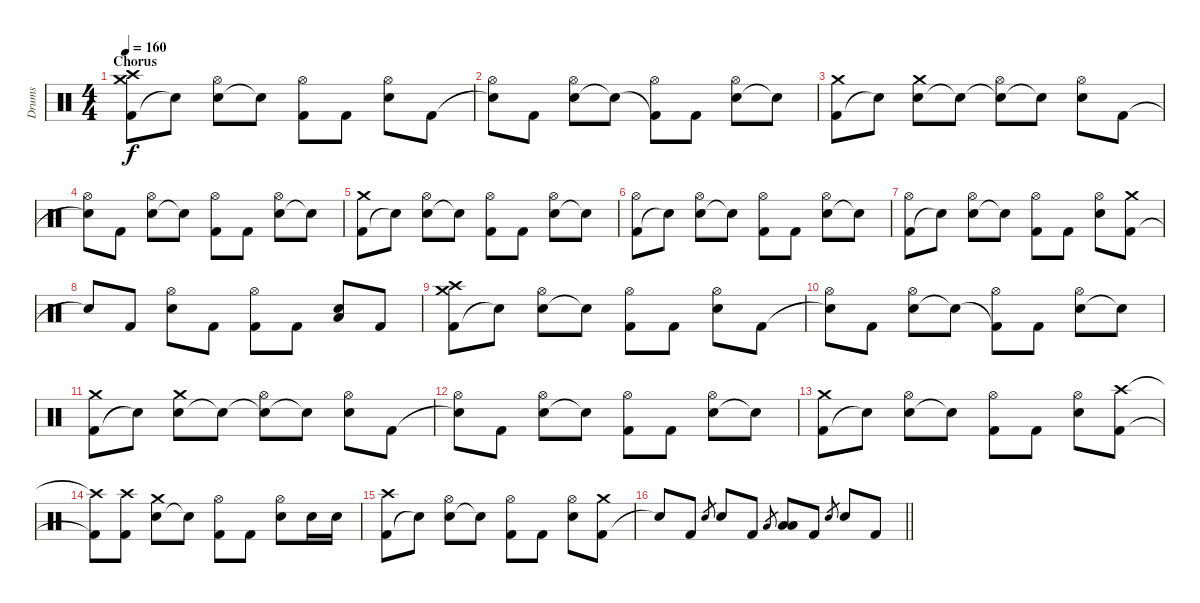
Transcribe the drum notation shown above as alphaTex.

\track ("Drums" "Drums") {instrument percussion}
\staff {score}
\articulation defaults
\ts (4 4)
\section ("" "Chorus")
\tempo 160
\clef neutral
\ks c
("Kick (hit) 2" "Crash medium (hit)" "Crash high (hit)").8{dy f} "Snare (hit)"{t}.8 ("Electric Snare (hit)" "Hi-Hat (open)").8 "Snare (hit)"{t}.8 ("Kick (hit) 2" "Hi-Hat (open)").8 "Kick (hit) 2".8 ("Electric Snare (hit)" "Hi-Hat (open)").8 "Kick (hit) 2".8 |
("Snare (hit)"{t} "Hi-Hat (open)").8 "Kick (hit) 2".8 ("Electric Snare (hit)" "Hi-Hat (open)").8 "Snare (hit)"{t}.8 ("Kick (hit) 2"{t} "Hi-Hat (open)").8 "Kick (hit) 2".8 ("Electric Snare (hit)" "Hi-Hat (open)").8 "Snare (hit)"{t}.8 |
("Kick (hit) 2" "Crash medium (hit)").8 "Snare (hit)"{t}.8 ("Electric Snare (hit)" "Crash medium (hit)").8 "Snare (hit)"{t}.8 ("Snare (hit)"{t} "Hi-Hat (open)").8 "Snare (hit)"{t}.8 ("Electric Snare (hit)" "Hi-Hat (open)").8 "Kick (hit) 2".8 |
("Snare (hit)"{t} "Hi-Hat (open)").8 "Kick (hit) 2".8 ("Electric Snare (hit)" "Hi-Hat (open)").8 "Snare (hit)"{t}.8 ("Kick (hit) 2" "Hi-Hat (open)").8 "Kick (hit) 2".8 ("Electric Snare (hit)" "Hi-Hat (open)").8 "Snare (hit)"{t}.8 |
("Kick (hit) 2" "Crash medium (hit)").8 "Snare (hit)"{t}.8 ("Electric Snare (hit)" "Hi-Hat (open)").8 "Snare (hit)"{t}.8 ("Kick (hit) 2" "Hi-Hat (open)").8 "Kick (hit) 2".8 ("Electric Snare (hit)" "Hi-Hat (open)").8 "Snare (hit)"{t}.8 |
("Kick (hit) 2" "Hi-Hat (open)").8 "Snare (hit)"{t}.8 ("Electric Snare (hit)" "Hi-Hat (open)").8 "Snare (hit)"{t}.8 ("Kick (hit) 2" "Hi-Hat (open)").8 "Kick (hit) 2".8 ("Electric Snare (hit)" "Hi-Hat (open)").8 "Snare (hit)"{t}.8 |
("Kick (hit) 2" "Hi-Hat (open)").8 "Snare (hit)"{t}.8 ("Electric Snare (hit)" "Hi-Hat (open)").8 "Snare (hit)"{t}.8 ("Kick (hit) 2" "Hi-Hat (open)").8 "Kick (hit) 2".8 ("Electric Snare (hit)" "Hi-Hat (open)").8 ("Kick (hit) 2" "Crash medium (hit)").8 |
"Snare (hit)"{t}.8 "Kick (hit) 2".8 ("Electric Snare (hit)" "Hi-Hat (open)").8 "Kick (hit) 2".8 ("Kick (hit) 2" "Hi-Hat (open)").8 "Kick (hit) 2".8 ("Electric Snare (hit)" "Low Tom (hit)").8 "Kick (hit) 2".8 |
("Kick (hit) 2" "Crash medium (hit)" "Crash high (hit)").8 "Snare (hit)"{t}.8 ("Electric Snare (hit)" "Hi-Hat (open)").8 "Snare (hit)"{t}.8 ("Kick (hit) 2" "Hi-Hat (open)").8 "Kick (hit) 2".8 ("Electric Snare (hit)" "Hi-Hat (open)").8 "Kick (hit) 2".8 |
("Snare (hit)"{t} "Hi-Hat (open)").8 "Kick (hit) 2".8 ("Electric Snare (hit)" "Hi-Hat (open)").8 "Snare (hit)"{t}.8 ("Kick (hit) 2"{t} "Hi-Hat (open)").8 "Kick (hit) 2".8 ("Electric Snare (hit)" "Hi-Hat (open)").8 "Snare (hit)"{t}.8 |
("Kick (hit) 2" "Crash medium (hit)").8 "Snare (hit)"{t}.8 ("Electric Snare (hit)" "Crash medium (hit)").8 "Snare (hit)"{t}.8 ("Snare (hit)"{t} "Hi-Hat (open)").8 "Snare (hit)"{t}.8 ("Electric Snare (hit)" "Hi-Hat (open)").8 "Kick (hit) 2".8 |
("Snare (hit)"{t} "Hi-Hat (open)").8 "Kick (hit) 2".8 ("Electric Snare (hit)" "Hi-Hat (open)").8 "Snare (hit)"{t}.8 ("Kick (hit) 2" "Hi-Hat (open)").8 "Kick (hit) 2".8 ("Electric Snare (hit)" "Hi-Hat (open)").8 "Snare (hit)"{t}.8 |
("Kick (hit) 2" "Crash medium (hit)").8 "Snare (hit)"{t}.8 ("Electric Snare (hit)" "Hi-Hat (open)").8 "Snare (hit)"{t}.8 ("Kick (hit) 2" "Hi-Hat (open)").8 "Kick (hit) 2".8 ("Electric Snare (hit)" "Hi-Hat (open)").8 ("Kick (hit) 2" "Crash high (hit)").8 |
("Kick (hit) 2"{t} "Crash high (hit)"{t}).8 ("Kick (hit) 2" "Crash high (hit)").8 ("Electric Snare (hit)" "Crash medium (hit)").8 "Snare (hit)"{t}.8 ("Kick (hit) 2" "Hi-Hat (open)").8 "Kick (hit) 2".8 ("Electric Snare (hit)" "Hi-Hat (open)").8 "Electric Snare (hit)".16 "Electric Snare (hit)".16 |
("Kick (hit) 2" "Crash high (hit)").8 "Snare (hit)"{t}.8 ("Electric Snare (hit)" "Hi-Hat (open)").8 "Snare (hit)"{t}.8 ("Kick (hit) 2" "Hi-Hat (open)").8 "Kick (hit) 2".8 ("Electric Snare (hit)" "Hi-Hat (open)").8 ("Kick (hit) 2" "Crash medium (hit)").8 |
\barLineRight lightlight "Snare (hit)"{t}.8 "Kick (hit) 2".8 "Electric Snare (hit)".8{gr} "Electric Snare (hit)".8 "Kick (hit) 2".8 "Low Tom (hit)".8{gr}
("Low Tom (hit)" "Low Floor Tom (hit)").8 "Kick (hit) 2".8 "Electric Snare (hit)".8{gr} "Electric Snare (hit)".8 "Kick (hit) 2".8
